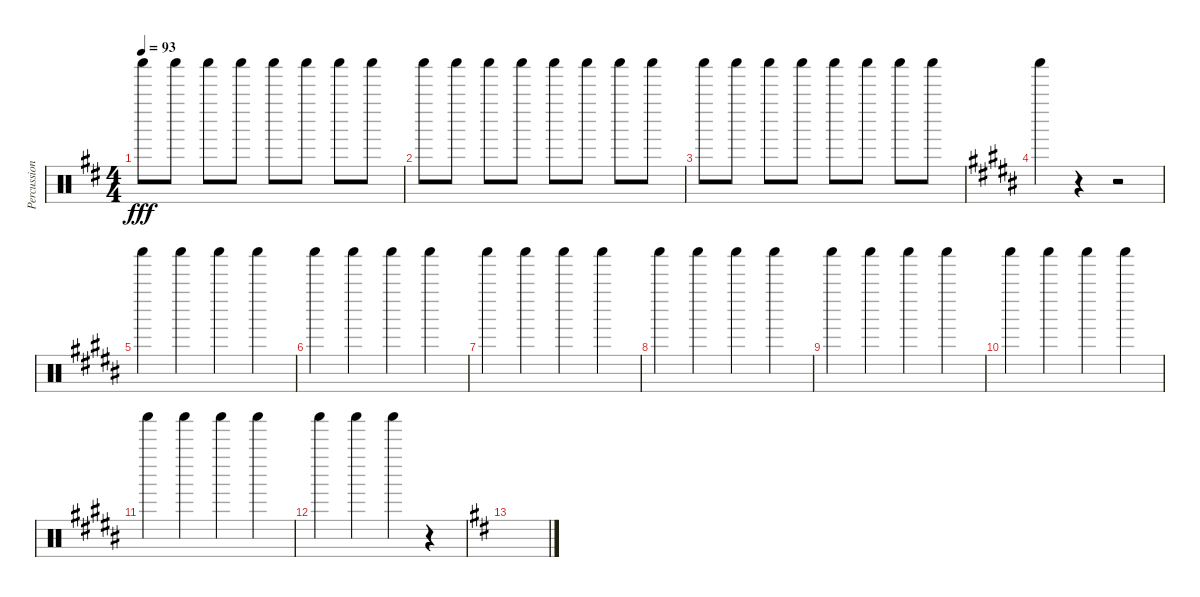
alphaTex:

\track ("Percussions" "Percussion") {instrument percussion}
\staff {score}
\articulation defaults
\ts (4 4)
\tempo 93
\clef neutral
\ks d "Shaker (hit)".8{dy fff} "Shaker (hit)".8 "Shaker (hit)".8 "Shaker (hit)".8 "Shaker (hit)".8 "Shaker (hit)".8 "Shaker (hit)".8 "Shaker (hit)".8
|
"Shaker (hit)".8 "Shaker (hit)".8 "Shaker (hit)".8 "Shaker (hit)".8 "Shaker (hit)".8 "Shaker (hit)".8 "Shaker (hit)".8 "Shaker (hit)".8 |
"Shaker (hit)".8 "Shaker (hit)".8 "Shaker (hit)".8 "Shaker (hit)".8 "Shaker (hit)".8 "Shaker (hit)".8 "Shaker (hit)".8 "Shaker (hit)".8 |
\ks b "Shaker (hit)".4
r.4 r.2 |
"Shaker (hit)".4 "Shaker (hit)".4 "Shaker (hit)".4 "Shaker (hit)".4 |
"Shaker (hit)".4 "Shaker (hit)".4 "Shaker (hit)".4 "Shaker (hit)".4 |
"Shaker (hit)".4 "Shaker (hit)".4 "Shaker (hit)".4 "Shaker (hit)".4 |
"Shaker (hit)".4 "Shaker (hit)".4 "Shaker (hit)".4 "Shaker (hit)".4 |
"Shaker (hit)".4 "Shaker (hit)".4 "Shaker (hit)".4 "Shaker (hit)".4 |
"Shaker (hit)".4 "Shaker (hit)".4 "Shaker (hit)".4 "Shaker (hit)".4 |
"Shaker (hit)".4 "Shaker (hit)".4 "Shaker (hit)".4 "Shaker (hit)".4 |
"Shaker (hit)".4 "Shaker (hit)".4 "Shaker (hit)".4 r.4 |
\ks d
